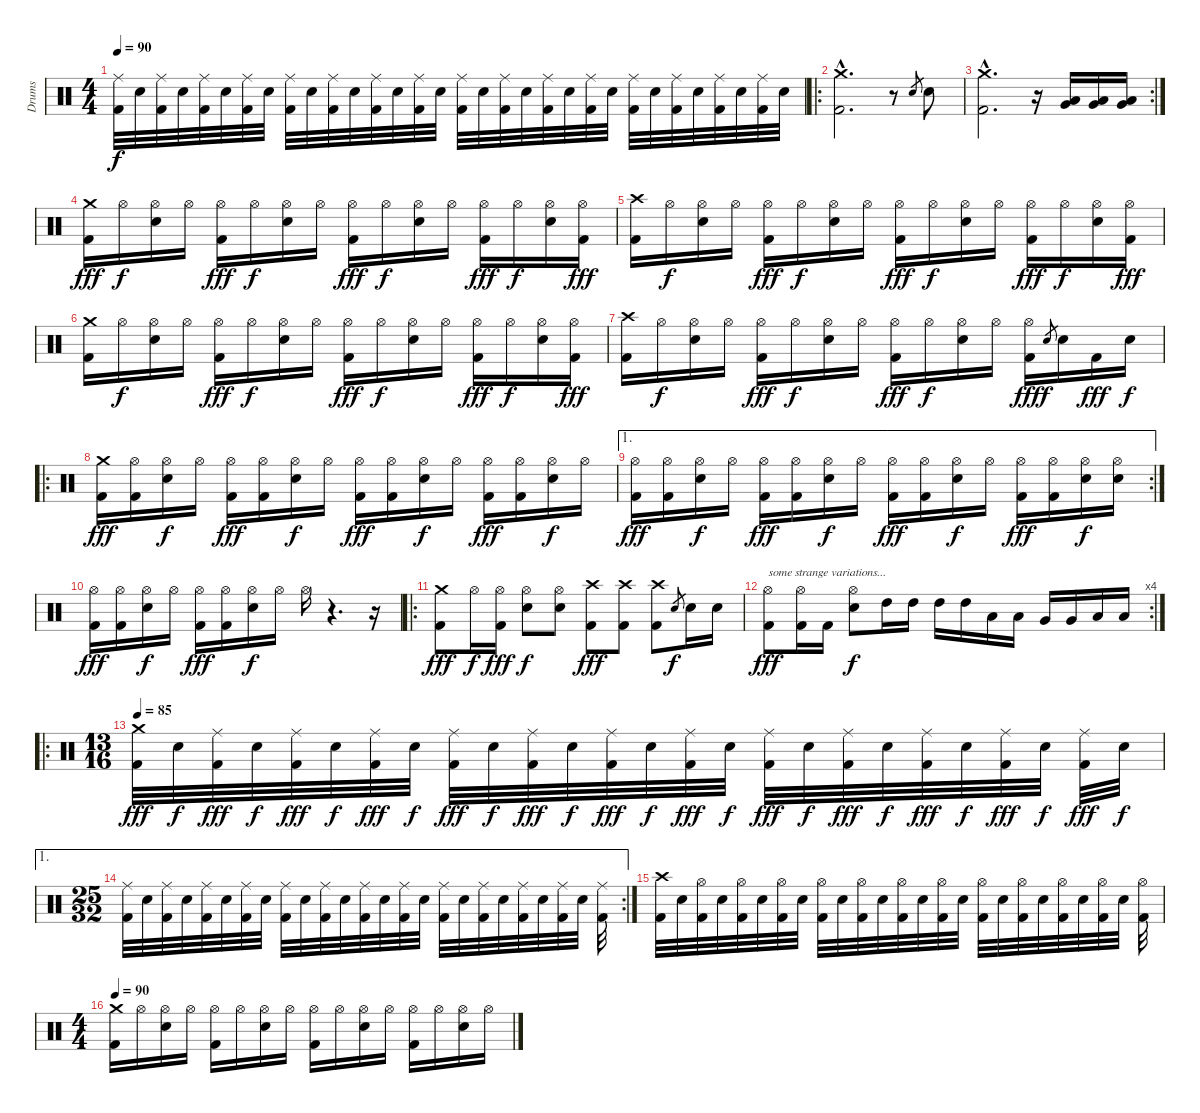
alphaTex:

\track ("Drums" "Drums") {instrument percussion}
\staff {score}
\articulation defaults
\ts (4 4)
\tempo 90
\clef neutral
\ks c
("Ride (middle)" "Kick (hit) 2").32{dy f} "Electric Snare (hit)".32 ("Ride (middle)" "Kick (hit) 2").32 "Electric Snare (hit)".32 ("Ride (middle)" "Kick (hit) 2").32 "Electric Snare (hit)".32 ("Ride (middle)" "Kick (hit) 2").32 "Electric Snare (hit)".32 ("Ride (middle)" "Kick (hit) 2").32 "Electric Snare (hit)".32 ("Ride (middle)" "Kick (hit) 2").32 "Electric Snare (hit)".32 ("Ride (middle)" "Kick (hit) 2").32 "Electric Snare (hit)".32 ("Ride (middle)" "Kick (hit) 2").32 "Electric Snare (hit)".32 ("Ride (middle)" "Kick (hit) 2").32 "Electric Snare (hit)".32 ("Ride (middle)" "Kick (hit) 2").32 "Electric Snare (hit)".32 ("Ride (middle)" "Kick (hit) 2").32 "Electric Snare (hit)".32 ("Ride (middle)" "Kick (hit) 2").32 "Electric Snare (hit)".32 ("Ride (middle)" "Kick (hit) 2").32 "Electric Snare (hit)".32 ("Ride (middle)" "Kick (hit) 2").32 "Electric Snare (hit)".32 ("Ride (middle)" "Kick (hit) 2").32 "Electric Snare (hit)".32 ("Ride (middle)" "Kick (hit) 2").32 "Electric Snare (hit)".32 |
\ro
("Crash medium (hit)"{hac} "Kick (hit) 2"{hac}).2{d} r.8 "Electric Snare (hit)".8{gr} "Electric Snare (hit)".8 |
\rc 2
("Crash medium (hit)"{hac} "Kick (hit) 2"{hac}).2{d} r.16 ("Very Low Tom (hit)" "Low Floor Tom (hit)").16 ("Very Low Tom (hit)" "Low Floor Tom (hit)").16 ("Very Low Tom (hit)" "Low Floor Tom (hit)").16 |
("Crash medium (hit)" "Kick (hit) 2").16{dy fff} "Hi-Hat (open)".16{dy f} ("Hi-Hat (open)" "Electric Snare (hit)").16 "Hi-Hat (open)".16 ("Hi-Hat (open)" "Kick (hit) 2").16{dy fff} "Hi-Hat (open)".16{dy f} ("Hi-Hat (open)" "Electric Snare (hit)").16 "Hi-Hat (open)".16 ("Hi-Hat (open)" "Kick (hit) 2").16{dy fff} "Hi-Hat (open)".16{dy f} ("Hi-Hat (open)" "Electric Snare (hit)").16 "Hi-Hat (open)".16 ("Hi-Hat (open)" "Kick (hit) 2").16{dy fff} "Hi-Hat (open)".16{dy f} ("Hi-Hat (open)" "Electric Snare (hit)").16 ("Hi-Hat (open)" "Kick (hit) 2").16{dy fff} |
("Crash high (hit)" "Kick (hit) 2").16 "Hi-Hat (open)".16{dy f} ("Hi-Hat (open)" "Electric Snare (hit)").16 "Hi-Hat (open)".16 ("Hi-Hat (open)" "Kick (hit) 2").16{dy fff} "Hi-Hat (open)".16{dy f} ("Hi-Hat (open)" "Electric Snare (hit)").16 "Hi-Hat (open)".16 ("Hi-Hat (open)" "Kick (hit) 2").16{dy fff} "Hi-Hat (open)".16{dy f} ("Hi-Hat (open)" "Electric Snare (hit)").16 "Hi-Hat (open)".16 ("Hi-Hat (open)" "Kick (hit) 2").16{dy fff} "Hi-Hat (open)".16{dy f} ("Hi-Hat (open)" "Electric Snare (hit)").16 ("Hi-Hat (open)" "Kick (hit) 2").16{dy fff} |
("Crash medium (hit)" "Kick (hit) 2").16 "Hi-Hat (open)".16{dy f} ("Hi-Hat (open)" "Electric Snare (hit)").16 "Hi-Hat (open)".16 ("Hi-Hat (open)" "Kick (hit) 2").16{dy fff} "Hi-Hat (open)".16{dy f} ("Hi-Hat (open)" "Electric Snare (hit)").16 "Hi-Hat (open)".16 ("Hi-Hat (open)" "Kick (hit) 2").16{dy fff} "Hi-Hat (open)".16{dy f} ("Hi-Hat (open)" "Electric Snare (hit)").16 "Hi-Hat (open)".16 ("Hi-Hat (open)" "Kick (hit) 2").16{dy fff} "Hi-Hat (open)".16{dy f} ("Hi-Hat (open)" "Electric Snare (hit)").16 ("Hi-Hat (open)" "Kick (hit) 2").16{dy fff} |
("Crash high (hit)" "Kick (hit) 2").16 "Hi-Hat (open)".16{dy f} ("Hi-Hat (open)" "Electric Snare (hit)").16 "Hi-Hat (open)".16 ("Hi-Hat (open)" "Kick (hit) 2").16{dy fff} "Hi-Hat (open)".16{dy f} ("Hi-Hat (open)" "Electric Snare (hit)").16 "Hi-Hat (open)".16 ("Hi-Hat (open)" "Kick (hit) 2").16{dy fff} "Hi-Hat (open)".16{dy f} ("Hi-Hat (open)" "Electric Snare (hit)").16 "Hi-Hat (open)".16 ("Hi-Hat (open)" "Kick (hit) 2").16{dy fff} "Electric Snare (hit)".8{gr dy f} "Electric Snare (hit)".16 "Kick (hit) 2".16{dy fff} "Electric Snare (hit)".16{dy f} |
\ro
("Crash medium (hit)" "Kick (hit) 2").16{dy fff} ("Hi-Hat (open)" "Kick (hit) 2").16 ("Hi-Hat (open)" "Electric Snare (hit)").16{dy f} "Hi-Hat (open)".16 ("Hi-Hat (open)" "Kick (hit) 2").16{dy fff} ("Hi-Hat (open)" "Kick (hit) 2").16 ("Hi-Hat (open)" "Electric Snare (hit)").16{dy f} "Hi-Hat (open)".16 ("Hi-Hat (open)" "Kick (hit) 2").16{dy fff} ("Hi-Hat (open)" "Kick (hit) 2").16 ("Hi-Hat (open)" "Electric Snare (hit)").16{dy f} "Hi-Hat (open)".16 ("Hi-Hat (open)" "Kick (hit) 2").16{dy fff} ("Hi-Hat (open)" "Kick (hit) 2").16 ("Hi-Hat (open)" "Electric Snare (hit)").16{dy f} "Hi-Hat (open)".16 |
\ae 1
\rc 2
("Hi-Hat (open)" "Kick (hit) 2").16{dy fff} ("Hi-Hat (open)" "Kick (hit) 2").16 ("Hi-Hat (open)" "Electric Snare (hit)").16{dy f} "Hi-Hat (open)".16 ("Hi-Hat (open)" "Kick (hit) 2").16{dy fff} ("Hi-Hat (open)" "Kick (hit) 2").16 ("Hi-Hat (open)" "Electric Snare (hit)").16{dy f} "Hi-Hat (open)".16 ("Hi-Hat (open)" "Kick (hit) 2").16{dy fff} ("Hi-Hat (open)" "Kick (hit) 2").16 ("Hi-Hat (open)" "Electric Snare (hit)").16{dy f} "Hi-Hat (open)".16 ("Hi-Hat (open)" "Kick (hit) 2").16{dy fff} ("Hi-Hat (open)" "Kick (hit) 2").16 ("Hi-Hat (open)" "Electric Snare (hit)").16{dy f} ("Hi-Hat (open)" "Electric Snare (hit)").16 |
("Hi-Hat (open)" "Kick (hit) 2").16{dy fff} ("Hi-Hat (open)" "Kick (hit) 2").16 ("Hi-Hat (open)" "Electric Snare (hit)").16{dy f} "Hi-Hat (open)".16 ("Hi-Hat (open)" "Kick (hit) 2").16{dy fff} ("Hi-Hat (open)" "Kick (hit) 2").16 ("Hi-Hat (open)" "Electric Snare (hit)").16{dy f} "Hi-Hat (open)".16 "Hi-Hat (open)".16 r.4{d} r.16 |
\ro
("Crash medium (hit)" "Kick (hit) 2").8{dy fff} "Hi-Hat (open)".16{dy f} ("Hi-Hat (open)" "Kick (hit) 2").16{dy fff} ("Hi-Hat (open)" "Electric Snare (hit)").8{dy f} ("Hi-Hat (open)" "Electric Snare (hit)").8 ("Crash high (hit)" "Kick (hit) 2").8{dy fff} ("Crash high (hit)" "Kick (hit) 2").8 ("Crash high (hit)" "Kick (hit) 2").8 "Electric Snare (hit)".8{gr dy f} "Electric Snare (hit)".16 "Electric Snare (hit)".16 |
\rc 4
("Hi-Hat (open)" "Kick (hit) 2").8{txt "some strange variations..." dy fff} ("Hi-Hat (open)" "Kick (hit) 2").16 "Kick (hit) 2".16 ("Hi-Hat (open)" "Electric Snare (hit)").8{dy f} "High Tom (hit)".16 "High Tom (hit)".16 "High Tom (hit)".16 "High Tom (hit)".16 "Low Tom (hit)".16 "Low Tom (hit)".16 "Very Low Tom (hit)".16 "Very Low Tom (hit)".16 "Low Floor Tom (hit)".16 "Low Floor Tom (hit)".16 |
\ro
\ts (13 16)
\tempo 85
("Crash medium (hit)" "Kick (hit) 2").32{dy fff} "Electric Snare (hit)".32{dy f} ("Ride (middle)" "Kick (hit) 2").32{dy fff} "Electric Snare (hit)".32{dy f} ("Ride (middle)" "Kick (hit) 2").32{dy fff} "Electric Snare (hit)".32{dy f} ("Ride (middle)" "Kick (hit) 2").32{dy fff} "Electric Snare (hit)".32{dy f} ("Ride (middle)" "Kick (hit) 2").32{dy fff} "Electric Snare (hit)".32{dy f} ("Ride (middle)" "Kick (hit) 2").32{dy fff} "Electric Snare (hit)".32{dy f} ("Ride (middle)" "Kick (hit) 2").32{dy fff} "Electric Snare (hit)".32{dy f} ("Ride (middle)" "Kick (hit) 2").32{dy fff} "Electric Snare (hit)".32{dy f} ("Ride (middle)" "Kick (hit) 2").32{dy fff} "Electric Snare (hit)".32{dy f} ("Ride (middle)" "Kick (hit) 2").32{dy fff} "Electric Snare (hit)".32{dy f} ("Ride (middle)" "Kick (hit) 2").32{dy fff} "Electric Snare (hit)".32{dy f} ("Ride (middle)" "Kick (hit) 2").32{dy fff} "Electric Snare (hit)".32{dy f} ("Ride (middle)" "Kick (hit) 2").32{dy fff} "Electric Snare (hit)".32{dy f} |
\ae 1
\rc 2
\ts (25 32)
("Ride (middle)" "Kick (hit) 2").32 "Electric Snare (hit)".32 ("Ride (middle)" "Kick (hit) 2").32 "Electric Snare (hit)".32 ("Ride (middle)" "Kick (hit) 2").32 "Electric Snare (hit)".32 ("Ride (middle)" "Kick (hit) 2").32 "Electric Snare (hit)".32 ("Ride (middle)" "Kick (hit) 2").32 "Electric Snare (hit)".32 ("Ride (middle)" "Kick (hit) 2").32 "Electric Snare (hit)".32 ("Ride (middle)" "Kick (hit) 2").32 "Electric Snare (hit)".32 ("Ride (middle)" "Kick (hit) 2").32 "Electric Snare (hit)".32 ("Ride (middle)" "Kick (hit) 2").32 "Electric Snare (hit)".32 ("Ride (middle)" "Kick (hit) 2").32 "Electric Snare (hit)".32 ("Ride (middle)" "Kick (hit) 2").32 "Electric Snare (hit)".32 ("Ride (middle)" "Kick (hit) 2").32 "Electric Snare (hit)".32 ("Ride (middle)" "Kick (hit) 2").32 |
("Crash high (hit)" "Kick (hit) 2").32 "Electric Snare (hit)".32 ("Hi-Hat (open)" "Kick (hit) 2").32 "Electric Snare (hit)".32 ("Hi-Hat (open)" "Kick (hit) 2").32 "Electric Snare (hit)".32 ("Hi-Hat (open)" "Kick (hit) 2").32 "Electric Snare (hit)".32 ("Hi-Hat (open)" "Kick (hit) 2").32 "Electric Snare (hit)".32 ("Hi-Hat (open)" "Kick (hit) 2").32 "Electric Snare (hit)".32 ("Hi-Hat (open)" "Kick (hit) 2").32 "Electric Snare (hit)".32 ("Hi-Hat (open)" "Kick (hit) 2").32 "Electric Snare (hit)".32 ("Hi-Hat (open)" "Kick (hit) 2").32 "Electric Snare (hit)".32 ("Hi-Hat (open)" "Kick (hit) 2").32 "Electric Snare (hit)".32 ("Hi-Hat (open)" "Kick (hit) 2").32 "Electric Snare (hit)".32 ("Hi-Hat (open)" "Kick (hit) 2").32 "Electric Snare (hit)".32 ("Hi-Hat (open)" "Kick (hit) 2").32 |
\ts (4 4)
\tempo 90
("Crash medium (hit)" "Kick (hit) 2").16 "Hi-Hat (open)".16 ("Hi-Hat (open)" "Electric Snare (hit)").16 "Hi-Hat (open)".16 ("Hi-Hat (open)" "Kick (hit) 2").16 "Hi-Hat (open)".16 ("Hi-Hat (open)" "Electric Snare (hit)").16 "Hi-Hat (open)".16 ("Hi-Hat (open)" "Kick (hit) 2").16 "Hi-Hat (open)".16 ("Hi-Hat (open)" "Electric Snare (hit)").16 "Hi-Hat (open)".16 ("Hi-Hat (open)" "Kick (hit) 2").16 "Hi-Hat (open)".16 ("Hi-Hat (open)" "Electric Snare (hit)").16 "Hi-Hat (open)".16
